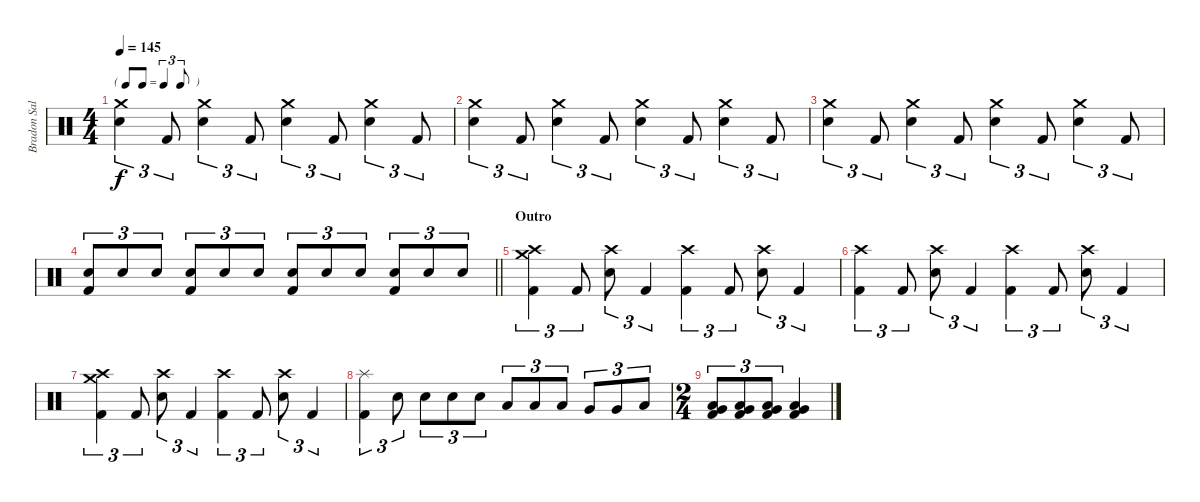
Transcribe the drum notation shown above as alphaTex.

\track ("Bradon Saller" "Bradon Sal") {instrument percussion}
\staff {score}
\articulation defaults
\ts (4 4)
\tf triplet8th
\section ("" "")
\tempo 145
\clef neutral
\ks c
("Crash medium (hit)" "Electric Snare (hit)").4{tu (3 2) dy f} "Kick (hit) 2".8{tu (3 2)} ("Crash medium (hit)" "Electric Snare (hit)").4{tu (3 2)} "Kick (hit) 2".8{tu (3 2)} ("Crash medium (hit)" "Electric Snare (hit)").4{tu (3 2)} "Kick (hit) 2".8{tu (3 2)} ("Crash medium (hit)" "Electric Snare (hit)").4{tu (3 2)} "Kick (hit) 2".8{tu (3 2)} |
("Crash medium (hit)" "Electric Snare (hit)").4{tu (3 2)} "Kick (hit) 2".8{tu (3 2)} ("Crash medium (hit)" "Electric Snare (hit)").4{tu (3 2)} "Kick (hit) 2".8{tu (3 2)} ("Crash medium (hit)" "Electric Snare (hit)").4{tu (3 2)} "Kick (hit) 2".8{tu (3 2)} ("Crash medium (hit)" "Electric Snare (hit)").4{tu (3 2)} "Kick (hit) 2".8{tu (3 2)} |
("Crash medium (hit)" "Electric Snare (hit)").4{tu (3 2)} "Kick (hit) 2".8{tu (3 2)} ("Crash medium (hit)" "Electric Snare (hit)").4{tu (3 2)} "Kick (hit) 2".8{tu (3 2)} ("Crash medium (hit)" "Electric Snare (hit)").4{tu (3 2)} "Kick (hit) 2".8{tu (3 2)} ("Crash medium (hit)" "Electric Snare (hit)").4{tu (3 2)} "Kick (hit) 2".8{tu (3 2)} |
\barLineRight lightlight
("Electric Snare (hit)" "Kick (hit) 2").8{tu (3 2)} "Electric Snare (hit)".8{tu (3 2)} "Electric Snare (hit)".8{tu (3 2)} ("Electric Snare (hit)" "Kick (hit) 2").8{tu (3 2)} "Electric Snare (hit)".8{tu (3 2)} "Electric Snare (hit)".8{tu (3 2)} ("Electric Snare (hit)" "Kick (hit) 2").8{tu (3 2)} "Electric Snare (hit)".8{tu (3 2)} "Electric Snare (hit)".8{tu (3 2)} ("Electric Snare (hit)" "Kick (hit) 2").8{tu (3 2)} "Electric Snare (hit)".8{tu (3 2)} "Electric Snare (hit)".8{tu (3 2)} |
\section ("" "Outro")
("Crash medium (hit)" "Crash high (hit)" "Kick (hit) 2").4{tu (3 2)} "Kick (hit) 2".8{tu (3 2)} ("Crash high (hit)" "Electric Snare (hit)").8{tu (3 2)} "Kick (hit) 2".4{tu (3 2)} ("Crash high (hit)" "Kick (hit) 2").4{tu (3 2)} "Kick (hit) 2".8{tu (3 2)} ("Crash high (hit)" "Electric Snare (hit)").8{tu (3 2)} "Kick (hit) 2".4{tu (3 2)} |
("Crash high (hit)" "Kick (hit) 2").4{tu (3 2)} "Kick (hit) 2".8{tu (3 2)} ("Crash high (hit)" "Electric Snare (hit)").8{tu (3 2)} "Kick (hit) 2".4{tu (3 2)} ("Crash high (hit)" "Kick (hit) 2").4{tu (3 2)} "Kick (hit) 2".8{tu (3 2)} ("Crash high (hit)" "Electric Snare (hit)").8{tu (3 2)} "Kick (hit) 2".4{tu (3 2)} |
("Crash medium (hit)" "Crash high (hit)" "Kick (hit) 2").4{tu (3 2)} "Kick (hit) 2".8{tu (3 2)} ("Crash high (hit)" "Electric Snare (hit)").8{tu (3 2)} "Kick (hit) 2".4{tu (3 2)} ("Crash high (hit)" "Kick (hit) 2").4{tu (3 2)} "Kick (hit) 2".8{tu (3 2)} ("Crash high (hit)" "Electric Snare (hit)").8{tu (3 2)} "Kick (hit) 2".4{tu (3 2)} |
("Splash (hit)" "Kick (hit) 2").4{tu (3 2)} "Electric Snare (hit)".8{tu (3 2)} "Electric Snare (hit)".8{tu (3 2)} "Electric Snare (hit)".8{tu (3 2)} "Electric Snare (hit)".8{tu (3 2)} "Low Tom (hit)".8{tu (3 2)} "Low Tom (hit)".8{tu (3 2)} "Low Tom (hit)".8{tu (3 2)} "Very Low Tom (hit)".8{tu (3 2)} "Very Low Tom (hit)".8{tu (3 2)} "Low Floor Tom (hit)".8{tu (3 2)} |
\ts (2 4)
("Very Low Tom (hit)" "Low Floor Tom (hit)" "Kick (hit) 2").8{tu (3 2)} ("Very Low Tom (hit)" "Low Floor Tom (hit)" "Kick (hit) 2").8{tu (3 2)} ("Very Low Tom (hit)" "Low Floor Tom (hit)" "Kick (hit) 2").8{tu (3 2)} ("Very Low Tom (hit)" "Low Floor Tom (hit)" "Kick (hit) 2").4
